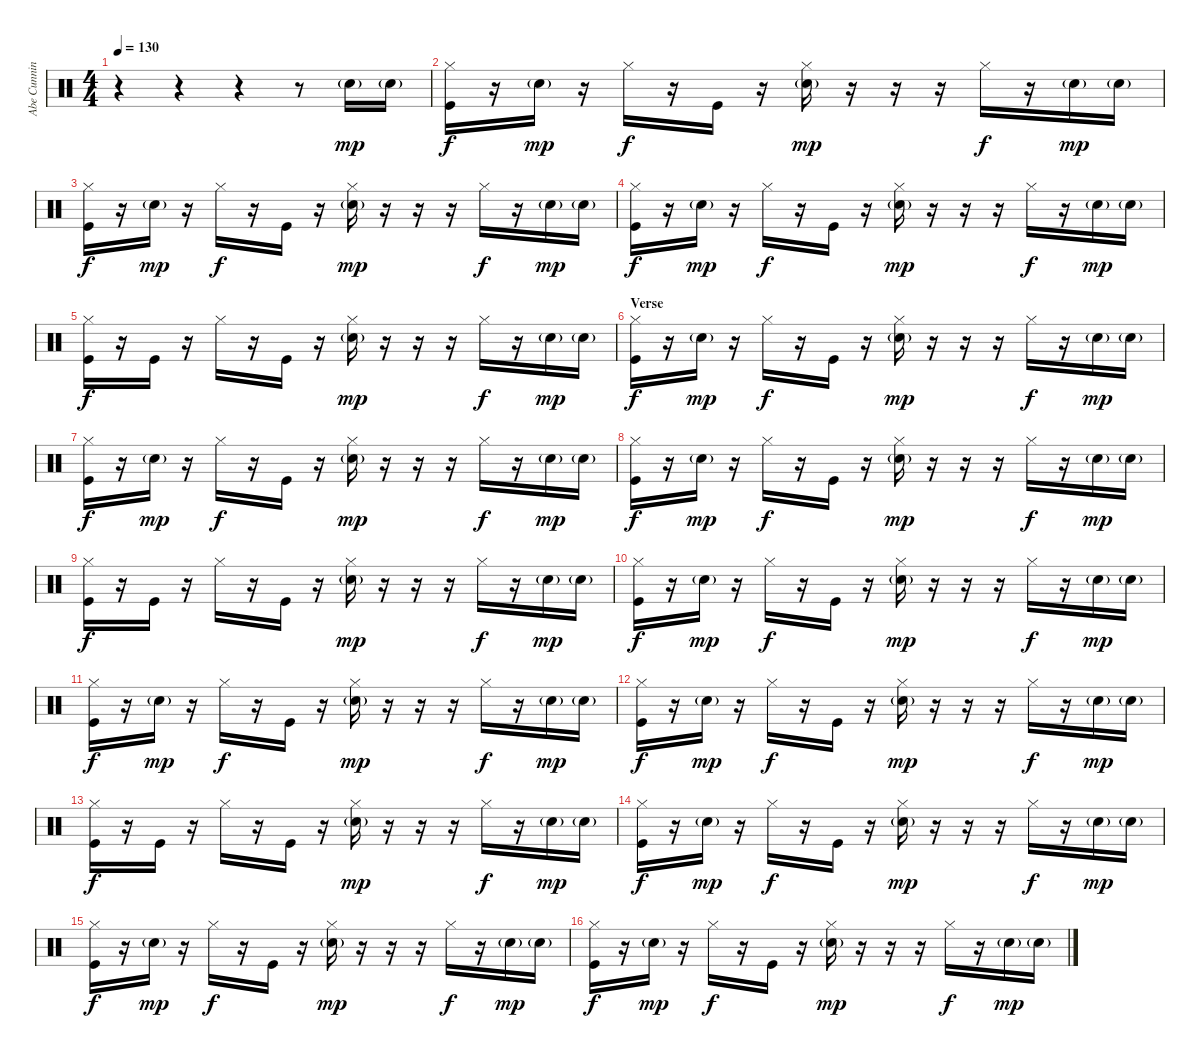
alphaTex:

\track ("Abe Cunningham" "Abe Cunnin") {instrument percussion}
\staff {score}
\articulation defaults
\ts (4 4)
\tempo 130
\clef neutral
\ks c
r.4{dy mp} r.4 r.4 r.8 "Electric Snare (hit)"{g}.16 "Electric Snare (hit)"{g}.16 |
("Hi-Hat (closed)" "Kick (hit)").16{dy f} r.16 "Electric Snare (hit)"{g}.16{dy mp} r.16 "Hi-Hat (closed)".16{dy f} r.16 "Kick (hit)".16 r.16 ("Hi-Hat (closed)" "Electric Snare (hit)"{g}).16{dy mp} r.16 r.16 r.16 "Hi-Hat (closed)".16{dy f} r.16 "Electric Snare (hit)"{g}.16{dy mp} "Electric Snare (hit)"{g}.16 |
("Hi-Hat (closed)" "Kick (hit)").16{dy f} r.16 "Electric Snare (hit)"{g}.16{dy mp} r.16 "Hi-Hat (closed)".16{dy f} r.16 "Kick (hit)".16 r.16 ("Hi-Hat (closed)" "Electric Snare (hit)"{g}).16{dy mp} r.16 r.16 r.16 "Hi-Hat (closed)".16{dy f} r.16 "Electric Snare (hit)"{g}.16{dy mp} "Electric Snare (hit)"{g}.16 |
("Hi-Hat (closed)" "Kick (hit)").16{dy f} r.16 "Electric Snare (hit)"{g}.16{dy mp} r.16 "Hi-Hat (closed)".16{dy f} r.16 "Kick (hit)".16 r.16 ("Hi-Hat (closed)" "Electric Snare (hit)"{g}).16{dy mp} r.16 r.16 r.16 "Hi-Hat (closed)".16{dy f} r.16 "Electric Snare (hit)"{g}.16{dy mp} "Electric Snare (hit)"{g}.16 |
("Hi-Hat (closed)" "Kick (hit)").16{dy f} r.16 "Kick (hit)".16 r.16 "Hi-Hat (closed)".16 r.16 "Kick (hit)".16 r.16 ("Hi-Hat (closed)" "Electric Snare (hit)"{g}).16{dy mp} r.16 r.16 r.16 "Hi-Hat (closed)".16{dy f} r.16 "Electric Snare (hit)"{g}.16{dy mp} "Electric Snare (hit)"{g}.16 |
\section ("" "Verse")
("Hi-Hat (closed)" "Kick (hit)").16{dy f} r.16 "Electric Snare (hit)"{g}.16{dy mp} r.16 "Hi-Hat (closed)".16{dy f} r.16 "Kick (hit)".16 r.16 ("Hi-Hat (closed)" "Electric Snare (hit)"{g}).16{dy mp} r.16 r.16 r.16 "Hi-Hat (closed)".16{dy f} r.16 "Electric Snare (hit)"{g}.16{dy mp} "Electric Snare (hit)"{g}.16 |
("Hi-Hat (closed)" "Kick (hit)").16{dy f} r.16 "Electric Snare (hit)"{g}.16{dy mp} r.16 "Hi-Hat (closed)".16{dy f} r.16 "Kick (hit)".16 r.16 ("Hi-Hat (closed)" "Electric Snare (hit)"{g}).16{dy mp} r.16 r.16 r.16 "Hi-Hat (closed)".16{dy f} r.16 "Electric Snare (hit)"{g}.16{dy mp} "Electric Snare (hit)"{g}.16 |
("Hi-Hat (closed)" "Kick (hit)").16{dy f} r.16 "Electric Snare (hit)"{g}.16{dy mp} r.16 "Hi-Hat (closed)".16{dy f} r.16 "Kick (hit)".16 r.16 ("Hi-Hat (closed)" "Electric Snare (hit)"{g}).16{dy mp} r.16 r.16 r.16 "Hi-Hat (closed)".16{dy f} r.16 "Electric Snare (hit)"{g}.16{dy mp} "Electric Snare (hit)"{g}.16 |
("Hi-Hat (closed)" "Kick (hit)").16{dy f} r.16 "Kick (hit)".16 r.16 "Hi-Hat (closed)".16 r.16 "Kick (hit)".16 r.16 ("Hi-Hat (closed)" "Electric Snare (hit)"{g}).16{dy mp} r.16 r.16 r.16 "Hi-Hat (closed)".16{dy f} r.16 "Electric Snare (hit)"{g}.16{dy mp} "Electric Snare (hit)"{g}.16 |
("Hi-Hat (closed)" "Kick (hit)").16{dy f} r.16 "Electric Snare (hit)"{g}.16{dy mp} r.16 "Hi-Hat (closed)".16{dy f} r.16 "Kick (hit)".16 r.16 ("Hi-Hat (closed)" "Electric Snare (hit)"{g}).16{dy mp} r.16 r.16 r.16 "Hi-Hat (closed)".16{dy f} r.16 "Electric Snare (hit)"{g}.16{dy mp} "Electric Snare (hit)"{g}.16 |
("Hi-Hat (closed)" "Kick (hit)").16{dy f} r.16 "Electric Snare (hit)"{g}.16{dy mp} r.16 "Hi-Hat (closed)".16{dy f} r.16 "Kick (hit)".16 r.16 ("Hi-Hat (closed)" "Electric Snare (hit)"{g}).16{dy mp} r.16 r.16 r.16 "Hi-Hat (closed)".16{dy f} r.16 "Electric Snare (hit)"{g}.16{dy mp} "Electric Snare (hit)"{g}.16 |
("Hi-Hat (closed)" "Kick (hit)").16{dy f} r.16 "Electric Snare (hit)"{g}.16{dy mp} r.16 "Hi-Hat (closed)".16{dy f} r.16 "Kick (hit)".16 r.16 ("Hi-Hat (closed)" "Electric Snare (hit)"{g}).16{dy mp} r.16 r.16 r.16 "Hi-Hat (closed)".16{dy f} r.16 "Electric Snare (hit)"{g}.16{dy mp} "Electric Snare (hit)"{g}.16 |
("Hi-Hat (closed)" "Kick (hit)").16{dy f} r.16 "Kick (hit)".16 r.16 "Hi-Hat (closed)".16 r.16 "Kick (hit)".16 r.16 ("Hi-Hat (closed)" "Electric Snare (hit)"{g}).16{dy mp} r.16 r.16 r.16 "Hi-Hat (closed)".16{dy f} r.16 "Electric Snare (hit)"{g}.16{dy mp} "Electric Snare (hit)"{g}.16 |
("Hi-Hat (closed)" "Kick (hit)").16{dy f} r.16 "Electric Snare (hit)"{g}.16{dy mp} r.16 "Hi-Hat (closed)".16{dy f} r.16 "Kick (hit)".16 r.16 ("Hi-Hat (closed)" "Electric Snare (hit)"{g}).16{dy mp} r.16 r.16 r.16 "Hi-Hat (closed)".16{dy f} r.16 "Electric Snare (hit)"{g}.16{dy mp} "Electric Snare (hit)"{g}.16 |
("Hi-Hat (closed)" "Kick (hit)").16{dy f} r.16 "Electric Snare (hit)"{g}.16{dy mp} r.16 "Hi-Hat (closed)".16{dy f} r.16 "Kick (hit)".16 r.16 ("Hi-Hat (closed)" "Electric Snare (hit)"{g}).16{dy mp} r.16 r.16 r.16 "Hi-Hat (closed)".16{dy f} r.16 "Electric Snare (hit)"{g}.16{dy mp} "Electric Snare (hit)"{g}.16 |
("Hi-Hat (closed)" "Kick (hit)").16{dy f} r.16 "Electric Snare (hit)"{g}.16{dy mp} r.16 "Hi-Hat (closed)".16{dy f} r.16 "Kick (hit)".16 r.16 ("Hi-Hat (closed)" "Electric Snare (hit)"{g}).16{dy mp} r.16 r.16 r.16 "Hi-Hat (closed)".16{dy f} r.16 "Electric Snare (hit)"{g}.16{dy mp} "Electric Snare (hit)"{g}.16
